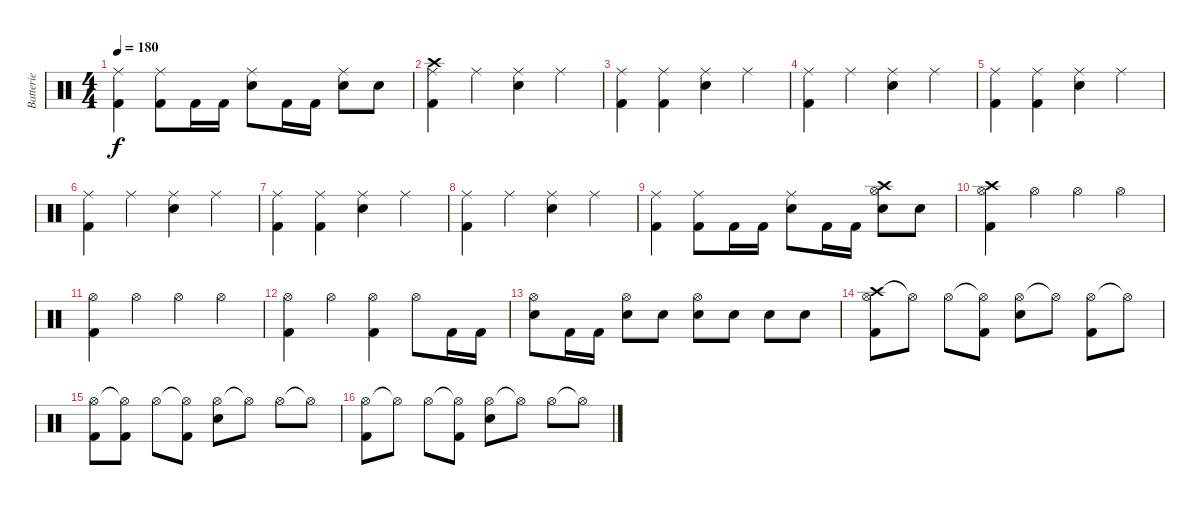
\track ("Batterie" "Batterie") {instrument percussion}
\staff {score}
\articulation defaults
\ts (4 4)
\tempo 180
\clef neutral
\ks c
("Ride (middle)" "Kick (hit) 2").4{dy f} ("Ride (middle)" "Kick (hit) 2").8 "Kick (hit) 2".16 "Kick (hit) 2".16 ("Ride (middle)" "Electric Snare (hit)").8 "Kick (hit) 2".16 "Kick (hit) 2".16 ("Ride (middle)" "Electric Snare (hit)").8 "Electric Snare (hit)".8 |
("Crash high (hit)" "Ride (middle)" "Kick (hit) 2").4 "Ride (middle)".4 ("Ride (middle)" "Electric Snare (hit)").4 "Ride (middle)".4 |
("Ride (middle)" "Kick (hit) 2").4 ("Ride (middle)" "Kick (hit) 2").4 ("Ride (middle)" "Electric Snare (hit)").4 "Ride (middle)".4 |
("Ride (middle)" "Kick (hit) 2").4 "Ride (middle)".4 ("Ride (middle)" "Electric Snare (hit)").4 "Ride (middle)".4 |
("Ride (middle)" "Kick (hit) 2").4 ("Ride (middle)" "Kick (hit) 2").4 ("Ride (middle)" "Electric Snare (hit)").4 "Ride (middle)".4 |
("Ride (middle)" "Kick (hit) 2").4 "Ride (middle)".4 ("Ride (middle)" "Electric Snare (hit)").4 "Ride (middle)".4 |
("Ride (middle)" "Kick (hit) 2").4 ("Ride (middle)" "Kick (hit) 2").4 ("Ride (middle)" "Electric Snare (hit)").4 "Ride (middle)".4 |
("Ride (middle)" "Kick (hit) 2").4 "Ride (middle)".4 ("Ride (middle)" "Electric Snare (hit)").4 "Ride (middle)".4 |
("Ride (middle)" "Kick (hit) 2").4 ("Ride (middle)" "Kick (hit) 2").8 "Kick (hit) 2".16 "Kick (hit) 2".16 ("Ride (middle)" "Electric Snare (hit)").8 "Kick (hit) 2".16 "Kick (hit) 2".16 ("Crash high (hit)" "Hi-Hat (open)" "Electric Snare (hit)").8 "Electric Snare (hit)".8 |
("Crash high (hit)" "Hi-Hat (open)" "Kick (hit) 2").4 "Hi-Hat (open)".4 "Hi-Hat (open)".4 "Hi-Hat (open)".4 |
("Hi-Hat (open)" "Kick (hit) 2").4 "Hi-Hat (open)".4 "Hi-Hat (open)".4 "Hi-Hat (open)".4 |
("Hi-Hat (open)" "Kick (hit) 2").4 "Hi-Hat (open)".4 ("Hi-Hat (open)" "Kick (hit) 2").4 "Hi-Hat (open)".8 "Kick (hit) 2".16 "Kick (hit) 2".16 |
("Hi-Hat (open)" "Electric Snare (hit)").8 "Kick (hit) 2".16 "Kick (hit) 2".16 ("Hi-Hat (open)" "Electric Snare (hit)").8 "Electric Snare (hit)".8 ("Hi-Hat (open)" "Electric Snare (hit)").8 "Electric Snare (hit)".8 "Electric Snare (hit)".8 "Electric Snare (hit)".8 |
("Crash high (hit)" "Hi-Hat (open)" "Kick (hit) 2").8 "Hi-Hat (open)"{t}.8 "Hi-Hat (open)".8 ("Hi-Hat (open)"{t} "Kick (hit) 2").8 ("Hi-Hat (open)" "Electric Snare (hit)").8 "Hi-Hat (open)"{t}.8 ("Hi-Hat (open)" "Kick (hit) 2").8 "Hi-Hat (open)"{t}.8 |
("Hi-Hat (open)" "Kick (hit) 2").8 ("Hi-Hat (open)"{t} "Kick (hit) 2").8 "Hi-Hat (open)".8 ("Hi-Hat (open)"{t} "Kick (hit) 2").8 ("Hi-Hat (open)" "Electric Snare (hit)").8 "Hi-Hat (open)"{t}.8 "Hi-Hat (open)".8 "Hi-Hat (open)"{t}.8 |
("Hi-Hat (open)" "Kick (hit) 2").8 "Hi-Hat (open)"{t}.8 "Hi-Hat (open)".8 ("Hi-Hat (open)"{t} "Kick (hit) 2").8 ("Hi-Hat (open)" "Electric Snare (hit)").8 "Hi-Hat (open)"{t}.8 "Hi-Hat (open)".8 "Hi-Hat (open)"{t}.8
